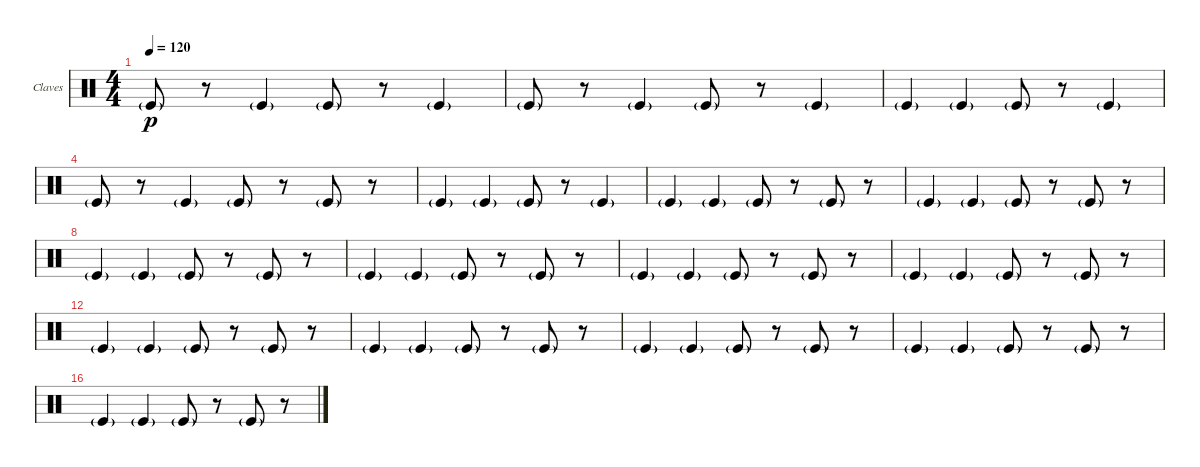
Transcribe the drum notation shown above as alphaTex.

\bracketExtendMode nobrackets
\firstSystemTrackNameOrientation horizontal
\otherSystemsTrackNameOrientation horizontal
\defaultBarNumberDisplay FirstOfSystem
\track ("Claves" "Claves") {instrument percussion}
\staff {score}
\articulation defaults
\ts (4 4)
\tempo 120
\clef neutral
\scale
0.25
\ks c "Kick (hit)"{g}.8{dy p}
r.8 "Kick (hit)"{g}.4 "Kick (hit)"{g}.8 r.8 "Kick (hit)"{g}.4 |
\scale
0.25 "Kick (hit)"{g}.8 r.8 "Kick (hit)"{g}.4 "Kick (hit)"{g}.8 r.8 "Kick (hit)"{g}.4 |
\scale
0.236364 "Kick (hit)"{g}.4 "Kick (hit)"{g}.4 "Kick (hit)"{g}.8 r.8 "Kick (hit)"{g}.4 |
\scale
0.272727 "Kick (hit)"{g}.8 r.8 "Kick (hit)"{g}.4 "Kick (hit)"{g}.8 r.8 "Kick (hit)"{g}.8 r.8 |
\scale
0.236364 "Kick (hit)"{g}.4 "Kick (hit)"{g}.4 "Kick (hit)"{g}.8 r.8 "Kick (hit)"{g}.4 |
\scale
0.254545 "Kick (hit)"{g}.4 "Kick (hit)"{g}.4 "Kick (hit)"{g}.8 r.8 "Kick (hit)"{g}.8 r.8 |
\scale
0.25 "Kick (hit)"{g}.4 "Kick (hit)"{g}.4 "Kick (hit)"{g}.8 r.8 "Kick (hit)"{g}.8 r.8 |
\scale
0.25 "Kick (hit)"{g}.4 "Kick (hit)"{g}.4 "Kick (hit)"{g}.8 r.8 "Kick (hit)"{g}.8 r.8 |
\scale
0.25 "Kick (hit)"{g}.4 "Kick (hit)"{g}.4 "Kick (hit)"{g}.8 r.8 "Kick (hit)"{g}.8 r.8 |
\scale
0.25 "Kick (hit)"{g}.4 "Kick (hit)"{g}.4 "Kick (hit)"{g}.8 r.8 "Kick (hit)"{g}.8 r.8 |
\scale
0.25 "Kick (hit)"{g}.4 "Kick (hit)"{g}.4 "Kick (hit)"{g}.8 r.8 "Kick (hit)"{g}.8 r.8 |
\scale
0.25 "Kick (hit)"{g}.4 "Kick (hit)"{g}.4 "Kick (hit)"{g}.8 r.8 "Kick (hit)"{g}.8 r.8 |
\scale
0.25 "Kick (hit)"{g}.4 "Kick (hit)"{g}.4 "Kick (hit)"{g}.8 r.8 "Kick (hit)"{g}.8 r.8 |
\scale
0.25 "Kick (hit)"{g}.4 "Kick (hit)"{g}.4 "Kick (hit)"{g}.8 r.8 "Kick (hit)"{g}.8 r.8 |
\scale
0.282051 "Kick (hit)"{g}.4 "Kick (hit)"{g}.4 "Kick (hit)"{g}.8 r.8 "Kick (hit)"{g}.8 r.8 |
\scale
0.294872 "Kick (hit)"{g}.4 "Kick (hit)"{g}.4 "Kick (hit)"{g}.8 r.8 "Kick (hit)"{g}.8 r.8
